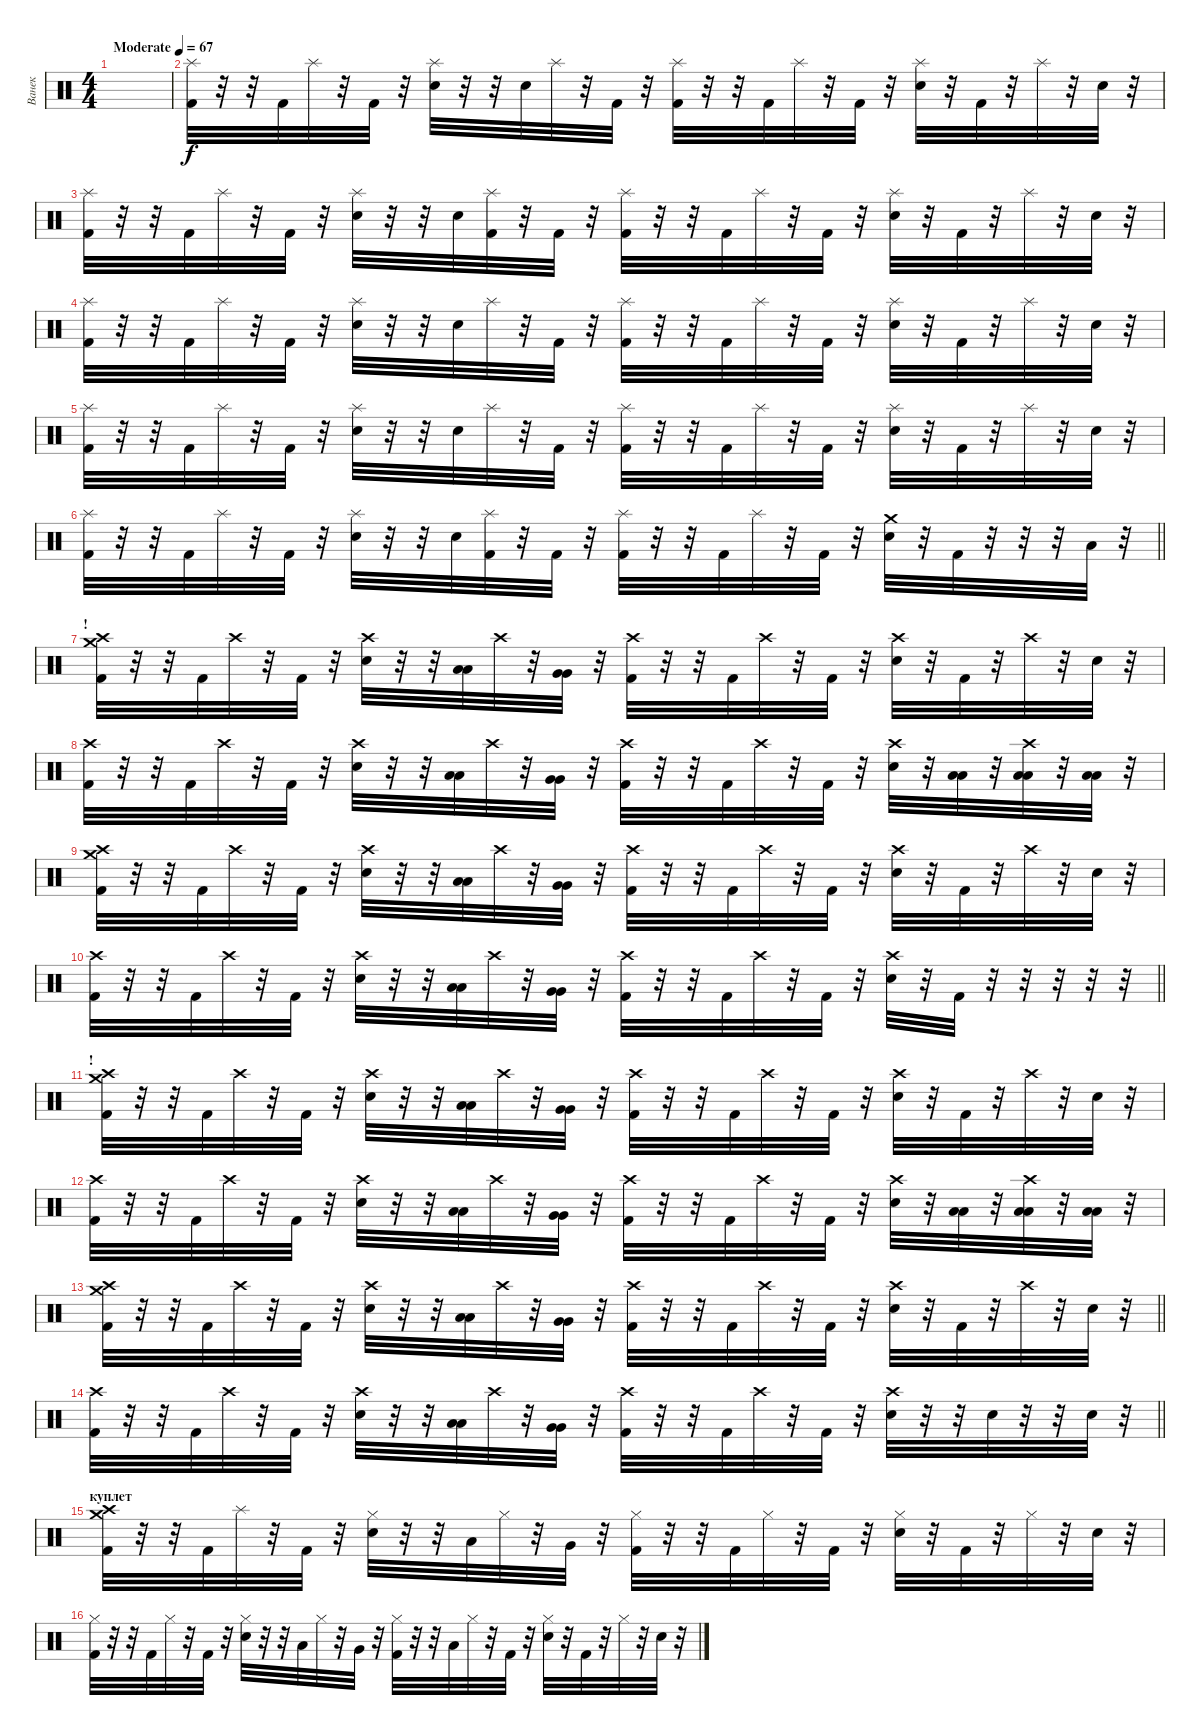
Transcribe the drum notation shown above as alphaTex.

\track ("Ванек" "Ванек") {instrument percussion}
\staff {score}
\articulation defaults
\ts (4 4)
\tempo (67 "Moderate")
\clef neutral
\ks c
|
("Splash (hit)" "Kick (hit) 2").32 r.32 r.32 "Kick (hit) 2".32 "Splash (hit)".32 r.32 "Kick (hit) 2".32 r.32 ("Splash (hit)" "Snare (hit) 2").32 r.32 r.32 "Snare (hit) 2".32 "Splash (hit)".32 r.32 "Kick (hit) 2".32 r.32 ("Splash (hit)" "Kick (hit) 2").32 r.32 r.32 "Kick (hit) 2".32 "Splash (hit)".32 r.32 "Kick (hit) 2".32 r.32 ("Splash (hit)" "Snare (hit) 2").32 r.32 "Kick (hit) 2".32 r.32 "Splash (hit)".32 r.32 "Snare (hit) 2".32 r.32 |
("Splash (hit)" "Kick (hit) 2").32 r.32 r.32 "Kick (hit) 2".32 "Splash (hit)".32 r.32 "Kick (hit) 2".32 r.32 ("Splash (hit)" "Snare (hit) 2").32 r.32 r.32 "Snare (hit) 2".32 ("Splash (hit)" "Kick (hit) 2").32 r.32 "Kick (hit) 2".32 r.32 ("Splash (hit)" "Kick (hit) 2").32 r.32 r.32 "Kick (hit) 2".32 "Splash (hit)".32 r.32 "Kick (hit) 2".32 r.32 ("Splash (hit)" "Snare (hit) 2").32 r.32 "Kick (hit) 2".32 r.32 "Splash (hit)".32 r.32 "Snare (hit) 2".32 r.32 |
("Splash (hit)" "Kick (hit) 2").32 r.32 r.32 "Kick (hit) 2".32 "Splash (hit)".32 r.32 "Kick (hit) 2".32 r.32 ("Splash (hit)" "Snare (hit) 2").32 r.32 r.32 "Snare (hit) 2".32 "Splash (hit)".32 r.32 "Kick (hit) 2".32 r.32 ("Splash (hit)" "Kick (hit) 2").32 r.32 r.32 "Kick (hit) 2".32 "Splash (hit)".32 r.32 "Kick (hit) 2".32 r.32 ("Splash (hit)" "Snare (hit) 2").32 r.32 "Kick (hit) 2".32 r.32 "Splash (hit)".32 r.32 "Snare (hit) 2".32 r.32 |
("Splash (hit)" "Kick (hit) 2").32 r.32 r.32 "Kick (hit) 2".32 "Splash (hit)".32 r.32 "Kick (hit) 2".32 r.32 ("Splash (hit)" "Snare (hit) 2").32 r.32 r.32 "Snare (hit) 2".32 "Splash (hit)".32 r.32 "Kick (hit) 2".32 r.32 ("Splash (hit)" "Kick (hit) 2").32 r.32 r.32 "Kick (hit) 2".32 "Splash (hit)".32 r.32 "Kick (hit) 2".32 r.32 ("Splash (hit)" "Snare (hit) 2").32 r.32 "Kick (hit) 2".32 r.32 "Splash (hit)".32 r.32 "Snare (hit) 2".32 r.32 |
\barLineRight lightlight
("Splash (hit)" "Kick (hit) 2").32 r.32 r.32 "Kick (hit) 2".32 "Splash (hit)".32 r.32 "Kick (hit) 2".32 r.32 ("Splash (hit)" "Snare (hit) 2").32 r.32 r.32 "Snare (hit) 2".32 ("Splash (hit)" "Kick (hit) 2").32 r.32 "Kick (hit) 2".32 r.32 ("Splash (hit)" "Kick (hit) 2").32 r.32 r.32 "Kick (hit) 2".32 "Splash (hit)".32 r.32 "Kick (hit) 2".32 r.32 ("Crash medium (hit)" "Snare (hit) 2").32 r.32 "Kick (hit) 2".32 r.32 r.32 r.32 "Low Tom (hit)".32 r.32 |
\section ("" "!")
("Crash high (hit)" "Crash medium (hit)" "Kick (hit) 2").32 r.32 r.32 "Kick (hit) 2".32 "Crash high (hit)".32 r.32 "Kick (hit) 2".32 r.32 ("Crash high (hit)" "Snare (hit) 2").32 r.32 r.32 ("Low Tom (hit)" "Low Tom (hit)").32 "Crash high (hit)".32 r.32 ("Very Low Tom (hit)" "Very Low Tom (hit)").32 r.32 ("Crash high (hit)" "Kick (hit) 2").32 r.32 r.32 "Kick (hit) 2".32 "Crash high (hit)".32 r.32 "Kick (hit) 2".32 r.32 ("Crash high (hit)" "Snare (hit) 2").32 r.32 "Kick (hit) 2".32 r.32 "Crash high (hit)".32 r.32 "Snare (hit) 2".32 r.32 |
("Crash high (hit)" "Kick (hit) 2").32 r.32 r.32 "Kick (hit) 2".32 "Crash high (hit)".32 r.32 "Kick (hit) 2".32 r.32 ("Crash high (hit)" "Snare (hit) 2").32 r.32 r.32 ("Low Tom (hit)" "Low Tom (hit)").32 "Crash high (hit)".32 r.32 ("Very Low Tom (hit)" "Very Low Tom (hit)").32 r.32 ("Crash high (hit)" "Kick (hit) 2").32 r.32 r.32 "Kick (hit) 2".32 "Crash high (hit)".32 r.32 "Kick (hit) 2".32 r.32 ("Crash high (hit)" "Snare (hit) 2").32 r.32 ("Low Tom (hit)" "Low Tom (hit)").32 r.32 ("Crash high (hit)" "Low Tom (hit)" "Low Tom (hit)").32 r.32 ("Low Tom (hit)" "Low Tom (hit)").32 r.32 |
("Crash high (hit)" "Crash medium (hit)" "Kick (hit) 2").32 r.32 r.32 "Kick (hit) 2".32 "Crash high (hit)".32 r.32 "Kick (hit) 2".32 r.32 ("Crash high (hit)" "Snare (hit) 2").32 r.32 r.32 ("Low Tom (hit)" "Low Tom (hit)").32 "Crash high (hit)".32 r.32 ("Very Low Tom (hit)" "Very Low Tom (hit)").32 r.32 ("Crash high (hit)" "Kick (hit) 2").32 r.32 r.32 "Kick (hit) 2".32 "Crash high (hit)".32 r.32 "Kick (hit) 2".32 r.32 ("Crash high (hit)" "Snare (hit) 2").32 r.32 "Kick (hit) 2".32 r.32 "Crash high (hit)".32 r.32 "Snare (hit) 2".32 r.32 |
\barLineRight lightlight
("Crash high (hit)" "Kick (hit) 2").32 r.32 r.32 "Kick (hit) 2".32 "Crash high (hit)".32 r.32 "Kick (hit) 2".32 r.32 ("Crash high (hit)" "Snare (hit) 2").32 r.32 r.32 ("Low Tom (hit)" "Low Tom (hit)").32 "Crash high (hit)".32 r.32 ("Very Low Tom (hit)" "Very Low Tom (hit)").32 r.32 ("Crash high (hit)" "Kick (hit) 2").32 r.32 r.32 "Kick (hit) 2".32 "Crash high (hit)".32 r.32 "Kick (hit) 2".32 r.32 ("Crash high (hit)" "Snare (hit) 2").32 r.32 "Kick (hit) 2".32 r.32 r.32 r.32 r.32 r.32 |
\section ("" "!")
("Crash high (hit)" "Crash medium (hit)" "Kick (hit) 2").32 r.32 r.32 "Kick (hit) 2".32 "Crash high (hit)".32 r.32 "Kick (hit) 2".32 r.32 ("Crash high (hit)" "Snare (hit) 2").32 r.32 r.32 ("Low Tom (hit)" "Low Tom (hit)").32 "Crash high (hit)".32 r.32 ("Very Low Tom (hit)" "Very Low Tom (hit)").32 r.32 ("Crash high (hit)" "Kick (hit) 2").32 r.32 r.32 "Kick (hit) 2".32 "Crash high (hit)".32 r.32 "Kick (hit) 2".32 r.32 ("Crash high (hit)" "Snare (hit) 2").32 r.32 "Kick (hit) 2".32 r.32 "Crash high (hit)".32 r.32 "Snare (hit) 2".32 r.32 |
("Crash high (hit)" "Kick (hit) 2").32 r.32 r.32 "Kick (hit) 2".32 "Crash high (hit)".32 r.32 "Kick (hit) 2".32 r.32 ("Crash high (hit)" "Snare (hit) 2").32 r.32 r.32 ("Low Tom (hit)" "Low Tom (hit)").32 "Crash high (hit)".32 r.32 ("Very Low Tom (hit)" "Very Low Tom (hit)").32 r.32 ("Crash high (hit)" "Kick (hit) 2").32 r.32 r.32 "Kick (hit) 2".32 "Crash high (hit)".32 r.32 "Kick (hit) 2".32 r.32 ("Crash high (hit)" "Snare (hit) 2").32 r.32 ("Low Tom (hit)" "Low Tom (hit)").32 r.32 ("Crash high (hit)" "Low Tom (hit)" "Low Tom (hit)").32 r.32 ("Low Tom (hit)" "Low Tom (hit)").32 r.32 |
\barLineRight lightlight
("Crash high (hit)" "Crash medium (hit)" "Kick (hit) 2").32 r.32 r.32 "Kick (hit) 2".32 "Crash high (hit)".32 r.32 "Kick (hit) 2".32 r.32 ("Crash high (hit)" "Snare (hit) 2").32 r.32 r.32 ("Low Tom (hit)" "Low Tom (hit)").32 "Crash high (hit)".32 r.32 ("Very Low Tom (hit)" "Very Low Tom (hit)").32 r.32 ("Crash high (hit)" "Kick (hit) 2").32 r.32 r.32 "Kick (hit) 2".32 "Crash high (hit)".32 r.32 "Kick (hit) 2".32 r.32 ("Crash high (hit)" "Snare (hit) 2").32 r.32 "Kick (hit) 2".32 r.32 "Crash high (hit)".32 r.32 "Snare (hit) 2".32 r.32 |
\barLineRight lightlight
("Crash high (hit)" "Kick (hit) 2").32 r.32 r.32 "Kick (hit) 2".32 "Crash high (hit)".32 r.32 "Kick (hit) 2".32 r.32 ("Crash high (hit)" "Snare (hit) 2").32 r.32 r.32 ("Low Tom (hit)" "Low Tom (hit)").32 "Crash high (hit)".32 r.32 ("Very Low Tom (hit)" "Very Low Tom (hit)").32 r.32 ("Crash high (hit)" "Kick (hit) 2").32 r.32 r.32 "Kick (hit) 2".32 "Crash high (hit)".32 r.32 "Kick (hit) 2".32 r.32 ("Crash high (hit)" "Snare (hit) 2").32 r.32 r.32 "Snare (hit) 2".32 r.32 r.32 "Snare (hit) 2".32 r.32 |
\section ("" "куплет")
("Crash high (hit)" "Crash medium (hit)" "Kick (hit) 2").32 r.32 r.32 "Kick (hit) 2".32 "Splash (hit)".32 r.32 "Kick (hit) 2".32 r.32 ("Hi-Hat (closed)" "Snare (hit) 2").32 r.32 r.32 "Low Tom (hit)".32 "Hi-Hat (closed)".32 r.32 "Very Low Tom (hit)".32 r.32 ("Hi-Hat (closed)" "Kick (hit) 2").32 r.32 r.32 "Kick (hit) 2".32 "Hi-Hat (closed)".32 r.32 "Kick (hit) 2".32 r.32 ("Hi-Hat (closed)" "Snare (hit) 2").32 r.32 "Kick (hit) 2".32 r.32 "Hi-Hat (closed)".32 r.32 "Snare (hit) 2".32 r.32 |
("Hi-Hat (closed)" "Kick (hit) 2").32 r.32 r.32 "Kick (hit) 2".32 "Hi-Hat (closed)".32 r.32 "Kick (hit) 2".32 r.32 ("Hi-Hat (closed)" "Snare (hit) 2").32 r.32 r.32 "Low Tom (hit)".32 "Hi-Hat (closed)".32 r.32 "Very Low Tom (hit)".32 r.32 ("Hi-Hat (closed)" "Kick (hit) 2").32 r.32 r.32 "Low Tom (hit)".32 "Hi-Hat (closed)".32 r.32 "Kick (hit) 2".32 r.32 ("Hi-Hat (closed)" "Snare (hit) 2").32 r.32 "Kick (hit) 2".32 r.32 "Hi-Hat (closed)".32 r.32 "Snare (hit) 2".32 r.32
